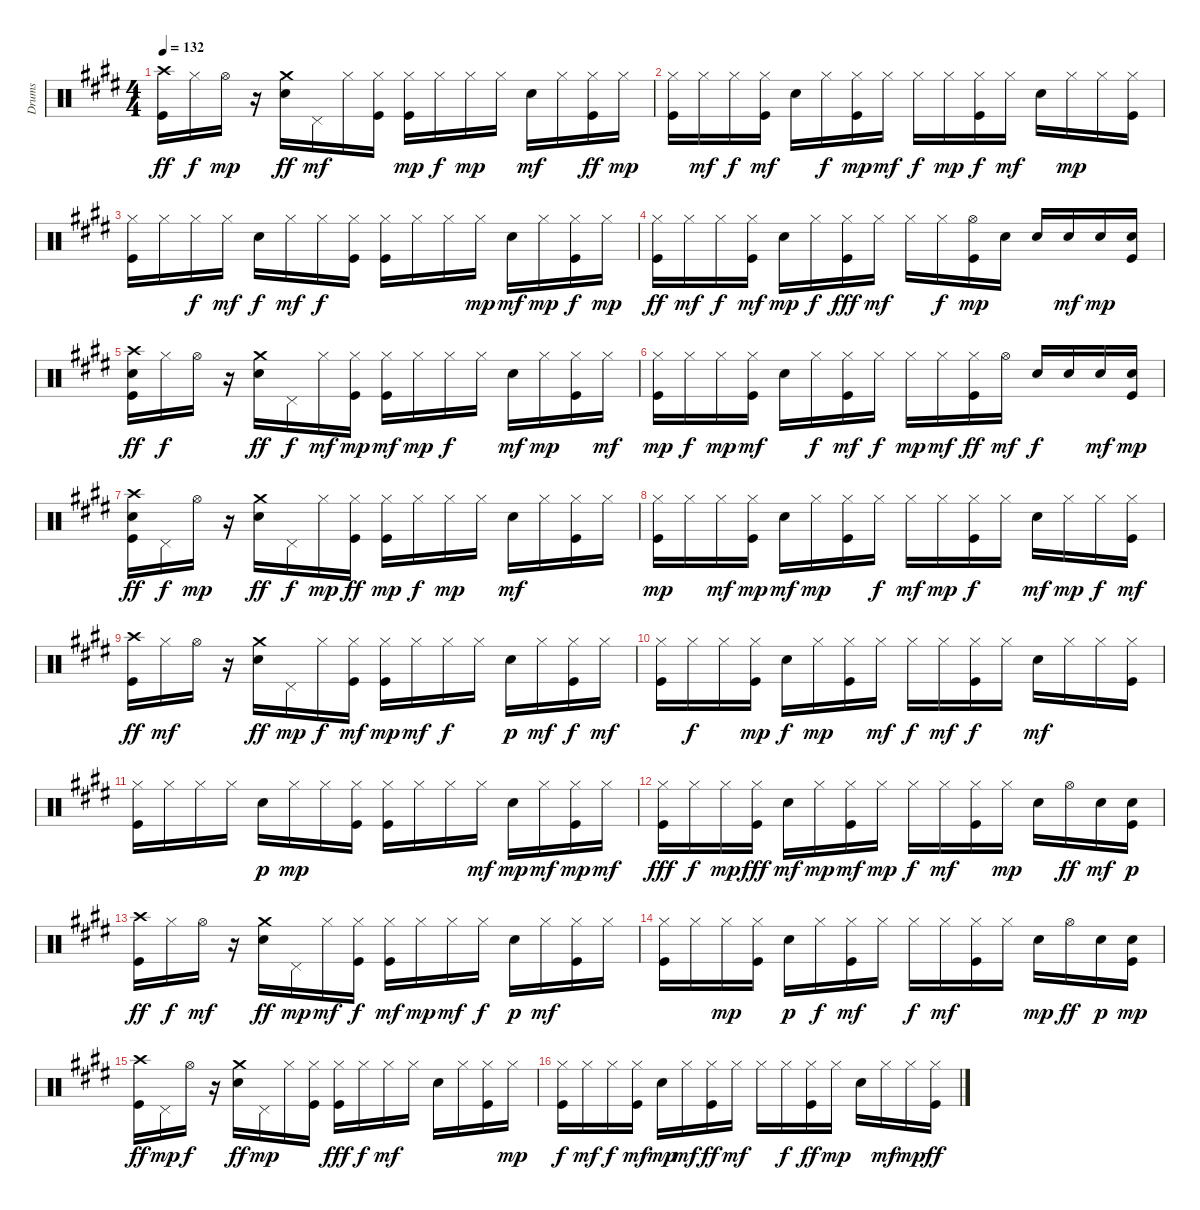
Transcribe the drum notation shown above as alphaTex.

\track ("Drums" "Drums") {instrument percussion}
\staff {score}
\articulation defaults
\ts (4 4)
\tempo 132
\clef neutral
\ks e
("Kick (hit)" "Crash high (hit)").16{dy ff} "Hi-Hat (closed)".16{dy f} "Hi-Hat (open)".16{dy mp} r.16 ("Snare (hit) 2" "Crash medium (hit)").16{dy ff} "Pedal Hi-Hat (hit)".16{dy mf} "Hi-Hat (closed)".16 ("Kick (hit)" "Hi-Hat (closed)").16 ("Kick (hit)" "Hi-Hat (closed)").16{dy mp} "Hi-Hat (closed)".16{dy f} "Hi-Hat (closed)".16{dy mp} "Hi-Hat (closed)".16 "Snare (hit) 2".16{dy mf} "Hi-Hat (closed)".16 ("Kick (hit)" "Hi-Hat (closed)").16{dy ff} "Hi-Hat (closed)".16{dy mp} |
("Kick (hit)" "Hi-Hat (closed)").16 "Hi-Hat (closed)".16{dy mf} "Hi-Hat (closed)".16{dy f} ("Kick (hit)" "Hi-Hat (closed)").16{dy mf} "Snare (hit) 2".16 "Hi-Hat (closed)".16{dy f} ("Kick (hit)" "Hi-Hat (closed)").16{dy mp} "Hi-Hat (closed)".16{dy mf} "Hi-Hat (closed)".16{dy f} "Hi-Hat (closed)".16{dy mp} ("Kick (hit)" "Hi-Hat (closed)").16{dy f} "Hi-Hat (closed)".16{dy mf} "Snare (hit) 2".16 "Hi-Hat (closed)".16{dy mp} "Hi-Hat (closed)".16 ("Kick (hit)" "Hi-Hat (closed)").16 |
("Kick (hit)" "Hi-Hat (closed)").16 "Hi-Hat (closed)".16 "Hi-Hat (closed)".16{dy f} "Hi-Hat (closed)".16{dy mf} "Snare (hit) 2".16{dy f} "Hi-Hat (closed)".16{dy mf} "Hi-Hat (closed)".16{dy f} ("Kick (hit)" "Hi-Hat (closed)").16 ("Kick (hit)" "Hi-Hat (closed)").16 "Hi-Hat (closed)".16 "Hi-Hat (closed)".16 "Hi-Hat (closed)".16{dy mp} "Snare (hit) 2".16{dy mf} "Hi-Hat (closed)".16{dy mp} ("Kick (hit)" "Hi-Hat (closed)").16{dy f} "Hi-Hat (closed)".16{dy mp} |
("Kick (hit)" "Hi-Hat (closed)").16{dy ff} "Hi-Hat (closed)".16{dy mf} "Hi-Hat (closed)".16{dy f} ("Kick (hit)" "Hi-Hat (closed)").16{dy mf} "Snare (hit) 2".16{dy mp} "Hi-Hat (closed)".16{dy f} ("Kick (hit)" "Hi-Hat (closed)").16{dy fff} "Hi-Hat (closed)".16{dy mf} "Hi-Hat (closed)".16 "Hi-Hat (closed)".16{dy f} ("Kick (hit)" "Hi-Hat (open)").16{dy mp} "Snare (hit) 2".16 "Snare (hit) 2".16 "Snare (hit) 2".16{dy mf} "Snare (hit) 2".16{dy mp} ("Kick (hit)" "Snare (hit) 2").16 |
("Kick (hit)" "Snare (hit) 2" "Crash high (hit)").16{dy ff} "Hi-Hat (closed)".16{dy f} "Hi-Hat (open)".16 r.16 ("Snare (hit) 2" "Crash medium (hit)").16{dy ff} "Pedal Hi-Hat (hit)".16{dy f} "Hi-Hat (closed)".16{dy mf} ("Kick (hit)" "Hi-Hat (closed)").16{dy mp} ("Kick (hit)" "Hi-Hat (closed)").16{dy mf} "Hi-Hat (closed)".16{dy mp} "Hi-Hat (closed)".16{dy f} "Hi-Hat (closed)".16 "Snare (hit) 2".16{dy mf} "Hi-Hat (closed)".16{dy mp} ("Kick (hit)" "Hi-Hat (closed)").16 "Hi-Hat (closed)".16{dy mf} |
("Kick (hit)" "Hi-Hat (closed)").16{dy mp} "Hi-Hat (closed)".16{dy f} "Hi-Hat (closed)".16{dy mp} ("Kick (hit)" "Hi-Hat (closed)").16{dy mf} "Snare (hit) 2".16 "Hi-Hat (closed)".16{dy f} ("Kick (hit)" "Hi-Hat (closed)").16{dy mf} "Hi-Hat (closed)".16{dy f} "Hi-Hat (closed)".16{dy mp} "Hi-Hat (closed)".16{dy mf} ("Kick (hit)" "Hi-Hat (closed)").16{dy ff} "Hi-Hat (open)".16{dy mf} "Snare (hit) 2".16{dy f} "Snare (hit) 2".16 "Snare (hit) 2".16{dy mf} ("Kick (hit)" "Snare (hit) 2").16{dy mp} |
("Kick (hit)" "Snare (hit) 2" "Crash high (hit)").16{dy ff} "Pedal Hi-Hat (hit)".16{dy f} "Hi-Hat (open)".16{dy mp} r.16 ("Snare (hit) 2" "Crash medium (hit)").16{dy ff} "Pedal Hi-Hat (hit)".16{dy f} "Hi-Hat (closed)".16{dy mp} ("Kick (hit)" "Hi-Hat (closed)").16{dy ff} ("Kick (hit)" "Hi-Hat (closed)").16{dy mp} "Hi-Hat (closed)".16{dy f} "Hi-Hat (closed)".16{dy mp} "Hi-Hat (closed)".16 "Snare (hit) 2".16{dy mf} "Hi-Hat (closed)".16 ("Kick (hit)" "Hi-Hat (closed)").16 "Hi-Hat (closed)".16 |
("Kick (hit)" "Hi-Hat (closed)").16{dy mp} "Hi-Hat (closed)".16 "Hi-Hat (closed)".16{dy mf} ("Kick (hit)" "Hi-Hat (closed)").16{dy mp} "Snare (hit) 2".16{dy mf} "Hi-Hat (closed)".16{dy mp} ("Kick (hit)" "Hi-Hat (closed)").16 "Hi-Hat (closed)".16{dy f} "Hi-Hat (closed)".16{dy mf} "Hi-Hat (closed)".16{dy mp} ("Kick (hit)" "Hi-Hat (closed)").16{dy f} "Hi-Hat (closed)".16 "Snare (hit) 2".16{dy mf} "Hi-Hat (closed)".16{dy mp} "Hi-Hat (closed)".16{dy f} ("Kick (hit)" "Hi-Hat (closed)").16{dy mf} |
("Kick (hit)" "Crash high (hit)").16{dy ff} "Hi-Hat (closed)".16{dy mf} "Hi-Hat (open)".16 r.16 ("Snare (hit) 2" "Crash medium (hit)").16{dy ff} "Pedal Hi-Hat (hit)".16{dy mp} "Hi-Hat (closed)".16{dy f} ("Kick (hit)" "Hi-Hat (closed)").16{dy mf} ("Kick (hit)" "Hi-Hat (closed)").16{dy mp} "Hi-Hat (closed)".16{dy mf} "Hi-Hat (closed)".16{dy f} "Hi-Hat (closed)".16 "Snare (hit) 2".16{dy p} "Hi-Hat (closed)".16{dy mf} ("Kick (hit)" "Hi-Hat (closed)").16{dy f} "Hi-Hat (closed)".16{dy mf} |
("Kick (hit)" "Hi-Hat (closed)").16 "Hi-Hat (closed)".16{dy f} "Hi-Hat (closed)".16 ("Kick (hit)" "Hi-Hat (closed)").16{dy mp} "Snare (hit) 2".16{dy f} "Hi-Hat (closed)".16{dy mp} ("Kick (hit)" "Hi-Hat (closed)").16 "Hi-Hat (closed)".16{dy mf} "Hi-Hat (closed)".16{dy f} "Hi-Hat (closed)".16{dy mf} ("Kick (hit)" "Hi-Hat (closed)").16{dy f} "Hi-Hat (closed)".16 "Snare (hit) 2".16{dy mf} "Hi-Hat (closed)".16 "Hi-Hat (closed)".16 ("Kick (hit)" "Hi-Hat (closed)").16 |
("Kick (hit)" "Hi-Hat (closed)").16 "Hi-Hat (closed)".16 "Hi-Hat (closed)".16 "Hi-Hat (closed)".16 "Snare (hit) 2".16{dy p} "Hi-Hat (closed)".16{dy mp} "Hi-Hat (closed)".16 ("Kick (hit)" "Hi-Hat (closed)").16 ("Kick (hit)" "Hi-Hat (closed)").16 "Hi-Hat (closed)".16 "Hi-Hat (closed)".16 "Hi-Hat (closed)".16{dy mf} "Snare (hit) 2".16{dy mp} "Hi-Hat (closed)".16{dy mf} ("Kick (hit)" "Hi-Hat (closed)").16{dy mp} "Hi-Hat (closed)".16{dy mf} |
("Kick (hit)" "Hi-Hat (closed)").16{dy fff} "Hi-Hat (closed)".16{dy f} "Hi-Hat (closed)".16{dy mp} ("Kick (hit)" "Hi-Hat (closed)").16{dy fff} "Snare (hit) 2".16{dy mf} "Hi-Hat (closed)".16{dy mp} ("Kick (hit)" "Hi-Hat (closed)").16{dy mf} "Hi-Hat (closed)".16{dy mp} "Hi-Hat (closed)".16{dy f} "Hi-Hat (closed)".16{dy mf} ("Kick (hit)" "Hi-Hat (closed)").16 "Hi-Hat (closed)".16{dy mp} "Snare (hit) 2".16 "Hi-Hat (open)".16{dy ff} "Snare (hit) 2".16{dy mf} ("Kick (hit)" "Snare (hit) 2").16{dy p} |
("Kick (hit)" "Crash high (hit)").16{dy ff} "Hi-Hat (closed)".16{dy f} "Hi-Hat (open)".16{dy mf} r.16 ("Snare (hit) 2" "Crash medium (hit)").16{dy ff} "Pedal Hi-Hat (hit)".16{dy mp} "Hi-Hat (closed)".16{dy mf} ("Kick (hit)" "Hi-Hat (closed)").16{dy f} ("Kick (hit)" "Hi-Hat (closed)").16{dy mf} "Hi-Hat (closed)".16{dy mp} "Hi-Hat (closed)".16{dy mf} "Hi-Hat (closed)".16{dy f} "Snare (hit) 2".16{dy p} "Hi-Hat (closed)".16{dy mf} ("Kick (hit)" "Hi-Hat (closed)").16 "Hi-Hat (closed)".16 |
("Kick (hit)" "Hi-Hat (closed)").16 "Hi-Hat (closed)".16 "Hi-Hat (closed)".16{dy mp} ("Kick (hit)" "Hi-Hat (closed)").16 "Snare (hit) 2".16{dy p} "Hi-Hat (closed)".16{dy f} ("Kick (hit)" "Hi-Hat (closed)").16{dy mf} "Hi-Hat (closed)".16 "Hi-Hat (closed)".16{dy f} "Hi-Hat (closed)".16{dy mf} ("Kick (hit)" "Hi-Hat (closed)").16 "Hi-Hat (closed)".16 "Snare (hit) 2".16{dy mp} "Hi-Hat (open)".16{dy ff} "Snare (hit) 2".16{dy p} ("Kick (hit)" "Snare (hit) 2").16{dy mp} |
("Kick (hit)" "Crash high (hit)").16{dy ff} "Pedal Hi-Hat (hit)".16{dy mp} "Hi-Hat (open)".16{dy f} r.16 ("Snare (hit) 2" "Crash medium (hit)").16{dy ff} "Pedal Hi-Hat (hit)".16{dy mp} "Hi-Hat (closed)".16 ("Kick (hit)" "Hi-Hat (closed)").16 ("Kick (hit)" "Hi-Hat (closed)").16{dy fff} "Hi-Hat (closed)".16{dy f} "Hi-Hat (closed)".16{dy mf} "Hi-Hat (closed)".16 "Snare (hit) 2".16 "Hi-Hat (closed)".16 ("Kick (hit)" "Hi-Hat (closed)").16 "Hi-Hat (closed)".16{dy mp} |
("Kick (hit)" "Hi-Hat (closed)").16{dy f} "Hi-Hat (closed)".16{dy mf} "Hi-Hat (closed)".16{dy f} ("Kick (hit)" "Hi-Hat (closed)").16{dy mf} "Snare (hit) 2".16{dy mp} "Hi-Hat (closed)".16{dy mf} ("Kick (hit)" "Hi-Hat (closed)").16{dy ff} "Hi-Hat (closed)".16{dy mf} "Hi-Hat (closed)".16 "Hi-Hat (closed)".16{dy f} ("Kick (hit)" "Hi-Hat (closed)").16{dy ff} "Hi-Hat (closed)".16{dy mp} "Snare (hit) 2".16 "Hi-Hat (closed)".16{dy mf} "Hi-Hat (closed)".16{dy mp} ("Kick (hit)" "Hi-Hat (closed)").16{dy ff}
